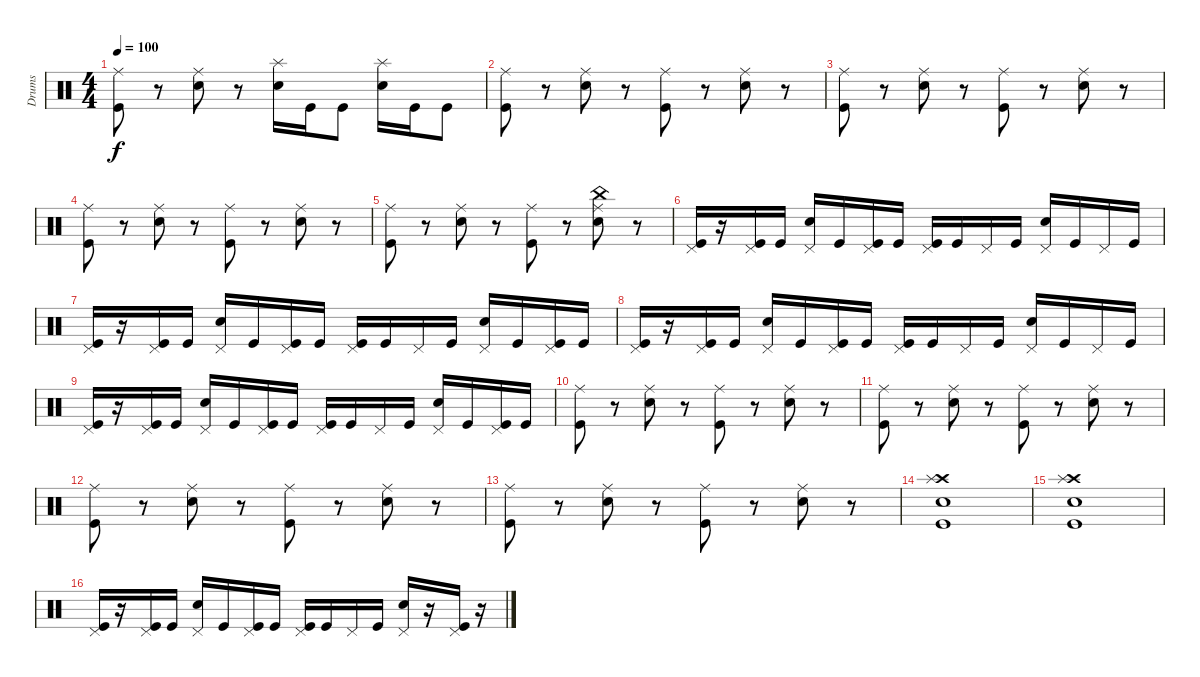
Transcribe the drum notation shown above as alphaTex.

\track ("Drums" "Drums") {instrument percussion}
\staff {score}
\articulation defaults
\ts (4 4)
\tempo 100
\clef neutral
\ks c
("Kick (hit)" "Ride (middle)").8{dy f} r.8 ("Snare (hit) 2" "Ride (middle)").8 r.8 ("Snare (hit) 2" "Splash (hit)").16 "Kick (hit)".16 "Kick (hit)".8 ("Snare (hit) 2" "Splash (hit)").16 "Kick (hit)".16 "Kick (hit)".8 |
("Kick (hit)" "Ride (middle)").8 r.8 ("Snare (hit) 2" "Ride (middle)").8 r.8 ("Kick (hit)" "Ride (middle)").8 r.8 ("Snare (hit) 2" "Ride (middle)").8 r.8 |
("Kick (hit)" "Ride (middle)").8 r.8 ("Snare (hit) 2" "Ride (middle)").8 r.8 ("Kick (hit)" "Ride (middle)").8 r.8 ("Snare (hit) 2" "Ride (middle)").8 r.8 |
("Kick (hit)" "Ride (middle)").8 r.8 ("Snare (hit) 2" "Ride (middle)").8 r.8 ("Kick (hit)" "Ride (middle)").8 r.8 ("Snare (hit) 2" "Ride (middle)").8 r.8 |
("Kick (hit)" "Ride (middle)").8 r.8 ("Snare (hit) 2" "Ride (middle)").8 r.8 ("Kick (hit)" "Ride (middle)").8 r.8 ("Snare (hit) 2" "Ride (middle)" "China (hit)").8 r.8 |
("Kick (hit)" "Pedal Hi-Hat (hit)").16 r.16 ("Kick (hit)" "Pedal Hi-Hat (hit)").16 "Kick (hit)".16 ("Snare (hit) 2" "Pedal Hi-Hat (hit)").16 "Kick (hit)".16 ("Kick (hit)" "Pedal Hi-Hat (hit)").16 "Kick (hit)".16 ("Kick (hit)" "Pedal Hi-Hat (hit)").16 "Kick (hit)".16 "Pedal Hi-Hat (hit)".16 "Kick (hit)".16 ("Snare (hit) 2" "Pedal Hi-Hat (hit)").16 "Kick (hit)".16 "Pedal Hi-Hat (hit)".16 "Kick (hit)".16 |
("Kick (hit)" "Pedal Hi-Hat (hit)").16 r.16 ("Kick (hit)" "Pedal Hi-Hat (hit)").16 "Kick (hit)".16 ("Snare (hit) 2" "Pedal Hi-Hat (hit)").16 "Kick (hit)".16 ("Kick (hit)" "Pedal Hi-Hat (hit)").16 "Kick (hit)".16 ("Kick (hit)" "Pedal Hi-Hat (hit)").16 "Kick (hit)".16 "Pedal Hi-Hat (hit)".16 "Kick (hit)".16 ("Snare (hit) 2" "Pedal Hi-Hat (hit)").16 "Kick (hit)".16 ("Kick (hit)" "Pedal Hi-Hat (hit)").16 "Kick (hit)".16 |
("Kick (hit)" "Pedal Hi-Hat (hit)").16 r.16 ("Kick (hit)" "Pedal Hi-Hat (hit)").16 "Kick (hit)".16 ("Snare (hit) 2" "Pedal Hi-Hat (hit)").16 "Kick (hit)".16 ("Kick (hit)" "Pedal Hi-Hat (hit)").16 "Kick (hit)".16 ("Kick (hit)" "Pedal Hi-Hat (hit)").16 "Kick (hit)".16 "Pedal Hi-Hat (hit)".16 "Kick (hit)".16 ("Snare (hit) 2" "Pedal Hi-Hat (hit)").16 "Kick (hit)".16 "Pedal Hi-Hat (hit)".16 "Kick (hit)".16 |
("Kick (hit)" "Pedal Hi-Hat (hit)").16 r.16 ("Kick (hit)" "Pedal Hi-Hat (hit)").16 "Kick (hit)".16 ("Snare (hit) 2" "Pedal Hi-Hat (hit)").16 "Kick (hit)".16 ("Kick (hit)" "Pedal Hi-Hat (hit)").16 "Kick (hit)".16 ("Kick (hit)" "Pedal Hi-Hat (hit)").16 "Kick (hit)".16 "Pedal Hi-Hat (hit)".16 "Kick (hit)".16 ("Snare (hit) 2" "Pedal Hi-Hat (hit)").16 "Kick (hit)".16 ("Kick (hit)" "Pedal Hi-Hat (hit)").16 "Kick (hit)".16 |
("Kick (hit)" "Ride (middle)").8 r.8 ("Snare (hit) 2" "Ride (middle)").8 r.8 ("Kick (hit)" "Ride (middle)").8 r.8 ("Snare (hit) 2" "Ride (middle)").8 r.8 |
("Kick (hit)" "Ride (middle)").8 r.8 ("Snare (hit) 2" "Ride (middle)").8 r.8 ("Kick (hit)" "Ride (middle)").8 r.8 ("Snare (hit) 2" "Ride (middle)").8 r.8 |
("Kick (hit)" "Ride (middle)").8 r.8 ("Snare (hit) 2" "Ride (middle)").8 r.8 ("Kick (hit)" "Ride (middle)").8 r.8 ("Snare (hit) 2" "Ride (middle)").8 r.8 |
("Kick (hit)" "Ride (middle)").8 r.8 ("Snare (hit) 2" "Ride (middle)").8 r.8 ("Kick (hit)" "Ride (middle)").8 r.8 ("Snare (hit) 2" "Ride (middle)").8 r.8 |
("Crash high (hit)" "Splash (hit)" "Snare (hit) 2" "Kick (hit)").1 |
("Crash high (hit)" "Splash (hit)" "Snare (hit) 2" "Kick (hit)").1 |
("Kick (hit)" "Pedal Hi-Hat (hit)").16 r.16 ("Kick (hit)" "Pedal Hi-Hat (hit)").16 "Kick (hit)".16 ("Snare (hit) 2" "Pedal Hi-Hat (hit)").16 "Kick (hit)".16 ("Kick (hit)" "Pedal Hi-Hat (hit)").16 "Kick (hit)".16 ("Kick (hit)" "Pedal Hi-Hat (hit)").16 "Kick (hit)".16 "Pedal Hi-Hat (hit)".16 "Kick (hit)".16 ("Snare (hit) 2" "Pedal Hi-Hat (hit)").16 r.16 ("Kick (hit)" "Pedal Hi-Hat (hit)").16 r.16
